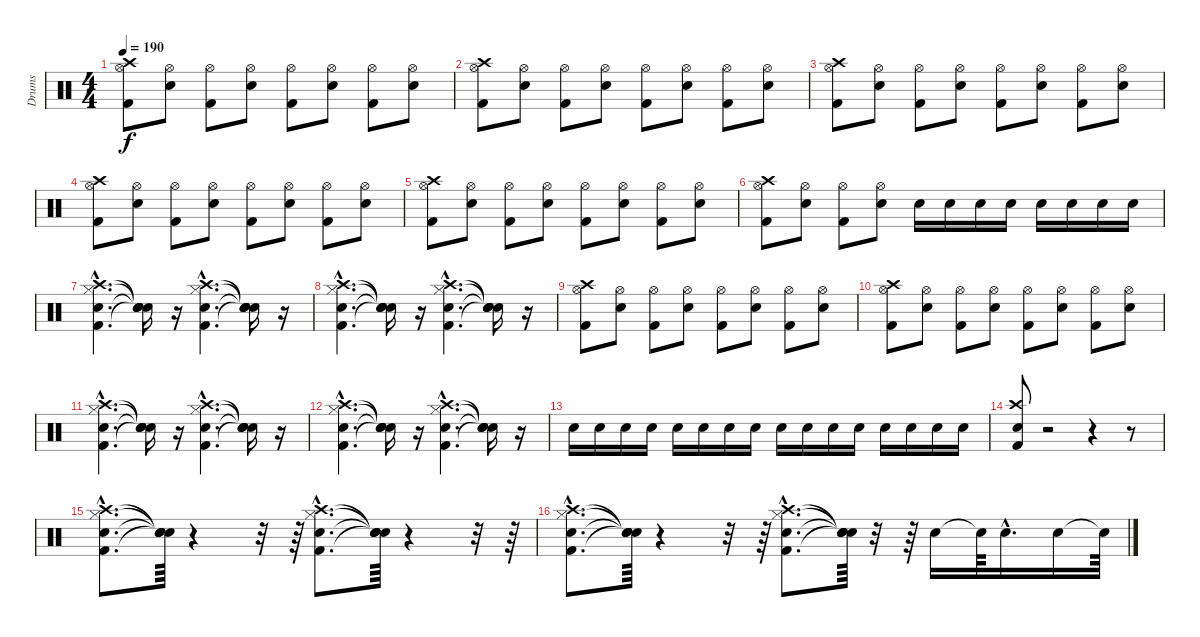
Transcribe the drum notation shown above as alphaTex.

\track ("Drums" "Drums") {instrument percussion}
\staff {score}
\articulation defaults
\ts (4 4)
\tempo 190
\clef neutral
\ks c
("Kick (hit) 2" "Hi-Hat (open)" "Crash high (hit)").8{dy f} ("Snare (hit) 2" "Hi-Hat (open)").8 ("Kick (hit) 2" "Hi-Hat (open)").8 ("Snare (hit) 2" "Hi-Hat (open)").8 ("Kick (hit) 2" "Hi-Hat (open)").8 ("Snare (hit) 2" "Hi-Hat (open)").8 ("Kick (hit) 2" "Hi-Hat (open)").8 ("Snare (hit) 2" "Hi-Hat (open)").8 |
("Kick (hit) 2" "Hi-Hat (open)" "Crash high (hit)").8 ("Snare (hit) 2" "Hi-Hat (open)").8 ("Kick (hit) 2" "Hi-Hat (open)").8 ("Snare (hit) 2" "Hi-Hat (open)").8 ("Kick (hit) 2" "Hi-Hat (open)").8 ("Snare (hit) 2" "Hi-Hat (open)").8 ("Kick (hit) 2" "Hi-Hat (open)").8 ("Snare (hit) 2" "Hi-Hat (open)").8 |
("Kick (hit) 2" "Hi-Hat (open)" "Crash high (hit)").8 ("Snare (hit) 2" "Hi-Hat (open)").8 ("Kick (hit) 2" "Hi-Hat (open)").8 ("Snare (hit) 2" "Hi-Hat (open)").8 ("Kick (hit) 2" "Hi-Hat (open)").8 ("Snare (hit) 2" "Hi-Hat (open)").8 ("Kick (hit) 2" "Hi-Hat (open)").8 ("Snare (hit) 2" "Hi-Hat (open)").8 |
("Kick (hit) 2" "Hi-Hat (open)" "Crash high (hit)").8 ("Snare (hit) 2" "Hi-Hat (open)").8 ("Kick (hit) 2" "Hi-Hat (open)").8 ("Snare (hit) 2" "Hi-Hat (open)").8 ("Kick (hit) 2" "Hi-Hat (open)").8 ("Snare (hit) 2" "Hi-Hat (open)").8 ("Kick (hit) 2" "Hi-Hat (open)").8 ("Snare (hit) 2" "Hi-Hat (open)").8 |
("Kick (hit) 2" "Hi-Hat (open)" "Crash high (hit)").8 ("Snare (hit) 2" "Hi-Hat (open)").8 ("Kick (hit) 2" "Hi-Hat (open)").8 ("Snare (hit) 2" "Hi-Hat (open)").8 ("Kick (hit) 2" "Hi-Hat (open)").8 ("Snare (hit) 2" "Hi-Hat (open)").8 ("Kick (hit) 2" "Hi-Hat (open)").8 ("Snare (hit) 2" "Hi-Hat (open)").8 |
("Kick (hit) 2" "Hi-Hat (open)" "Crash high (hit)").8 ("Snare (hit) 2" "Hi-Hat (open)").8 ("Kick (hit) 2" "Hi-Hat (open)").8 ("Snare (hit) 2" "Hi-Hat (open)").8 "Snare (hit) 2".16 "Snare (hit) 2".16 "Snare (hit) 2".16 "Snare (hit) 2".16 "Snare (hit) 2".16 "Snare (hit) 2".16 "Snare (hit) 2".16 "Snare (hit) 2".16 |
("Kick (hit) 2"{hac} "Snare (hit) 2"{hac} "Hi-Hat (closed)"{hac} "Crash high (hit)"{hac}).4{d} ("Snare (hit)"{t} "Snare (hit)"{t} "Snare (hit)"{t} "Snare (hit)"{t}).16 r.16 ("Kick (hit) 2"{hac} "Snare (hit) 2"{hac} "Hi-Hat (closed)"{hac} "Crash high (hit)"{hac}).4{d} ("Snare (hit)"{t} "Snare (hit)"{t} "Snare (hit)"{t} "Snare (hit)"{t}).16 r.16 |
("Kick (hit) 2"{hac} "Snare (hit) 2"{hac} "Hi-Hat (closed)"{hac} "Crash high (hit)"{hac}).4{d} ("Snare (hit)"{t} "Snare (hit)"{t} "Snare (hit)"{t} "Snare (hit)"{t}).16 r.16 ("Kick (hit) 2"{hac} "Snare (hit) 2"{hac} "Hi-Hat (closed)"{hac} "Crash high (hit)"{hac}).4{d} ("Snare (hit)"{t} "Snare (hit)"{t} "Snare (hit)"{t} "Snare (hit)"{t}).16 r.16 |
("Kick (hit) 2" "Hi-Hat (open)" "Crash high (hit)").8 ("Snare (hit) 2" "Hi-Hat (open)").8 ("Kick (hit) 2" "Hi-Hat (open)").8 ("Snare (hit) 2" "Hi-Hat (open)").8 ("Kick (hit) 2" "Hi-Hat (open)").8 ("Snare (hit) 2" "Hi-Hat (open)").8 ("Kick (hit) 2" "Hi-Hat (open)").8 ("Snare (hit) 2" "Hi-Hat (open)").8 |
("Kick (hit) 2" "Hi-Hat (open)" "Crash high (hit)").8 ("Snare (hit) 2" "Hi-Hat (open)").8 ("Kick (hit) 2" "Hi-Hat (open)").8 ("Snare (hit) 2" "Hi-Hat (open)").8 ("Kick (hit) 2" "Hi-Hat (open)").8 ("Snare (hit) 2" "Hi-Hat (open)").8 ("Kick (hit) 2" "Hi-Hat (open)").8 ("Snare (hit) 2" "Hi-Hat (open)").8 |
("Kick (hit) 2"{hac} "Snare (hit) 2"{hac} "Hi-Hat (closed)"{hac} "Crash high (hit)"{hac}).4{d} ("Snare (hit)"{t} "Snare (hit)"{t} "Snare (hit)"{t} "Snare (hit)"{t}).16 r.16 ("Kick (hit) 2"{hac} "Snare (hit) 2"{hac} "Hi-Hat (closed)"{hac} "Crash high (hit)"{hac}).4{d} ("Snare (hit)"{t} "Snare (hit)"{t} "Snare (hit)"{t} "Snare (hit)"{t}).16 r.16 |
("Kick (hit) 2"{hac} "Snare (hit) 2"{hac} "Hi-Hat (closed)"{hac} "Crash high (hit)"{hac}).4{d} ("Snare (hit)"{t} "Snare (hit)"{t} "Snare (hit)"{t} "Snare (hit)"{t}).16 r.16 ("Kick (hit) 2"{hac} "Snare (hit) 2"{hac} "Hi-Hat (closed)"{hac} "Crash high (hit)"{hac}).4{d} ("Snare (hit)"{t} "Snare (hit)"{t} "Snare (hit)"{t} "Snare (hit)"{t}).16 r.16 |
"Snare (hit) 2".16 "Snare (hit) 2".16 "Snare (hit) 2".16 "Snare (hit) 2".16 "Snare (hit) 2".16 "Snare (hit) 2".16 "Snare (hit) 2".16 "Snare (hit) 2".16 "Snare (hit) 2".16 "Snare (hit) 2".16 "Snare (hit) 2".16 "Snare (hit) 2".16 "Snare (hit) 2".16 "Snare (hit) 2".16 "Snare (hit) 2".16 "Snare (hit) 2".16 |
("Kick (hit) 2" "Snare (hit) 2" "Crash high (hit)").8 r.2 r.4 r.8 |
("Kick (hit) 2"{hac} "Snare (hit) 2"{hac} "Hi-Hat (closed)"{hac} "Crash high (hit)"{hac}).8{d} ("Snare (hit)"{t} "Snare (hit)"{t} "Snare (hit)"{t} "Snare (hit)"{t}).64 r.4 r.32 r.64 ("Kick (hit) 2"{hac} "Snare (hit) 2"{hac} "Hi-Hat (closed)"{hac} "Crash high (hit)"{hac}).8{d} ("Snare (hit)"{t} "Snare (hit)"{t} "Snare (hit)"{t} "Snare (hit)"{t}).64 r.4 r.32 r.64 |
("Kick (hit) 2"{hac} "Snare (hit) 2"{hac} "Hi-Hat (closed)"{hac} "Crash high (hit)"{hac}).8{d} ("Snare (hit)"{t} "Snare (hit)"{t} "Snare (hit)"{t} "Snare (hit)"{t}).64 r.4 r.32 r.64 ("Kick (hit) 2"{hac} "Snare (hit) 2"{hac} "Hi-Hat (closed)"{hac} "Crash high (hit)"{hac}).8{d} ("Snare (hit)"{t} "Snare (hit)"{t} "Snare (hit)"{t} "Snare (hit)"{t}).64 r.32 r.64 "Snare (hit) 2".16 "Snare (hit)"{t}.64 "Snare (hit) 2"{hac}.16{d} "Snare (hit) 2".16 "Snare (hit)"{t}.64
